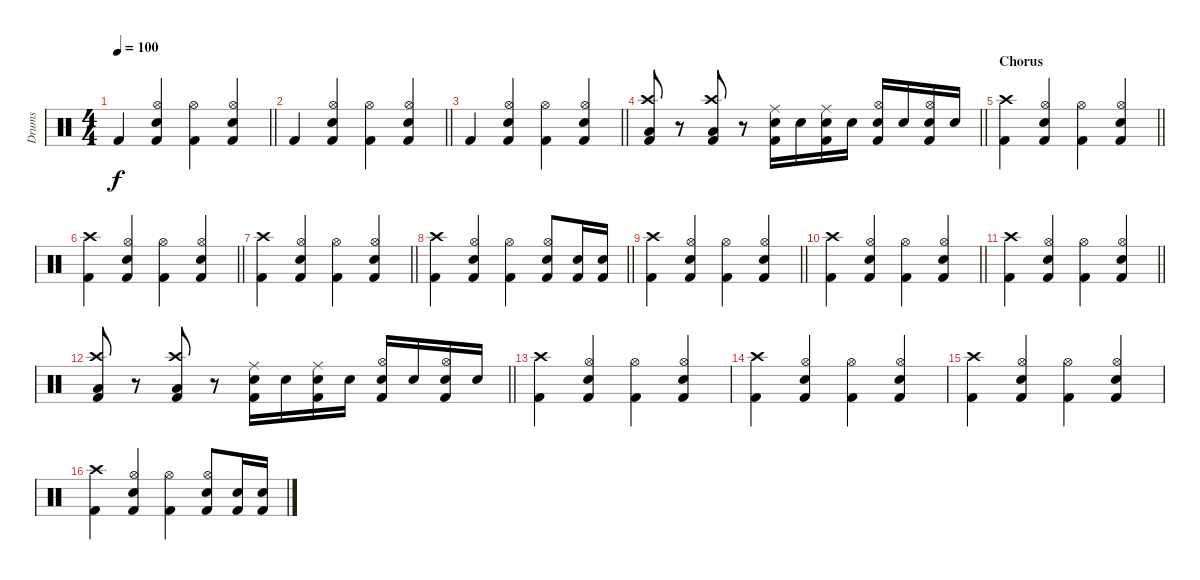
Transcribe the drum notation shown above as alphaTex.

\track ("Drums" "Drums") {instrument percussion}
\staff {score}
\articulation defaults
\ts (4 4)
\tempo 100
\clef neutral
\barLineRight lightlight
\ks c "Kick (hit) 2".4{dy f}
("Hi-Hat (open)" "Snare (hit) 2" "Kick (hit) 2").4 ("Hi-Hat (open)" "Kick (hit) 2").4 ("Hi-Hat (open)" "Snare (hit) 2" "Kick (hit) 2").4 |
\barLineRight lightlight "Kick (hit) 2".4
("Hi-Hat (open)" "Snare (hit) 2" "Kick (hit) 2").4 ("Hi-Hat (open)" "Kick (hit) 2").4 ("Hi-Hat (open)" "Snare (hit) 2" "Kick (hit) 2").4 |
\barLineRight lightlight "Kick (hit) 2".4
("Hi-Hat (open)" "Snare (hit) 2" "Kick (hit) 2").4 ("Hi-Hat (open)" "Kick (hit) 2").4 ("Hi-Hat (open)" "Snare (hit) 2" "Kick (hit) 2").4 |
\barLineRight lightlight
("Crash high (hit)" "Low Floor Tom (hit)" "Kick (hit) 2").8 r.8 ("Crash high (hit)" "Low Tom (hit)" "Kick (hit) 2").8 r.8 ("Ride (middle)" "Snare (hit) 2" "Kick (hit) 2").16 "Snare (hit) 2".16 ("Ride (middle)" "Snare (hit) 2" "Kick (hit) 2").16 "Snare (hit) 2".16 ("Hi-Hat (open)" "Snare (hit) 2" "Kick (hit) 2").16 "Snare (hit) 2".16 ("Hi-Hat (open)" "Snare (hit) 2" "Kick (hit) 2").16 "Snare (hit) 2".16 |
\section ("" "Chorus")
\barLineRight lightlight
("Crash high (hit)" "Kick (hit) 2").4 ("Hi-Hat (open)" "Snare (hit) 2" "Kick (hit) 2").4 ("Hi-Hat (open)" "Kick (hit) 2").4 ("Hi-Hat (open)" "Snare (hit) 2" "Kick (hit) 2").4 |
\barLineRight lightlight
("Crash high (hit)" "Kick (hit) 2").4 ("Hi-Hat (open)" "Snare (hit) 2" "Kick (hit) 2").4 ("Hi-Hat (open)" "Kick (hit) 2").4 ("Hi-Hat (open)" "Snare (hit) 2" "Kick (hit) 2").4 |
\barLineRight lightlight
("Crash high (hit)" "Kick (hit) 2").4 ("Hi-Hat (open)" "Snare (hit) 2" "Kick (hit) 2").4 ("Hi-Hat (open)" "Kick (hit) 2").4 ("Hi-Hat (open)" "Snare (hit) 2" "Kick (hit) 2").4 |
\barLineRight lightlight
("Crash high (hit)" "Kick (hit) 2").4 ("Hi-Hat (open)" "Snare (hit) 2" "Kick (hit) 2").4 ("Hi-Hat (open)" "Kick (hit) 2").4 ("Hi-Hat (open)" "Snare (hit) 2" "Kick (hit) 2").8 ("Snare (hit) 2" "Kick (hit) 2").16 ("Snare (hit) 2" "Kick (hit) 2").16 |
\barLineRight lightlight
("Crash high (hit)" "Kick (hit) 2").4 ("Hi-Hat (open)" "Snare (hit) 2" "Kick (hit) 2").4 ("Hi-Hat (open)" "Kick (hit) 2").4 ("Hi-Hat (open)" "Snare (hit) 2" "Kick (hit) 2").4 |
\barLineRight lightlight
("Crash high (hit)" "Kick (hit) 2").4 ("Hi-Hat (open)" "Snare (hit) 2" "Kick (hit) 2").4 ("Hi-Hat (open)" "Kick (hit) 2").4 ("Hi-Hat (open)" "Snare (hit) 2" "Kick (hit) 2").4 |
\barLineRight lightlight
("Crash high (hit)" "Kick (hit) 2").4 ("Hi-Hat (open)" "Snare (hit) 2" "Kick (hit) 2").4 ("Hi-Hat (open)" "Kick (hit) 2").4 ("Hi-Hat (open)" "Snare (hit) 2" "Kick (hit) 2").4 |
\barLineRight lightlight
("Crash high (hit)" "Low Floor Tom (hit)" "Kick (hit) 2").8 r.8 ("Crash high (hit)" "Low Tom (hit)" "Kick (hit) 2").8 r.8 ("Ride (middle)" "Snare (hit) 2" "Kick (hit) 2").16 "Snare (hit) 2".16 ("Ride (middle)" "Snare (hit) 2" "Kick (hit) 2").16 "Snare (hit) 2".16 ("Hi-Hat (open)" "Snare (hit) 2" "Kick (hit) 2").16 "Snare (hit) 2".16 ("Hi-Hat (open)" "Snare (hit) 2" "Kick (hit) 2").16 "Snare (hit) 2".16 |
("Crash high (hit)" "Kick (hit) 2").4 ("Hi-Hat (open)" "Snare (hit) 2" "Kick (hit) 2").4 ("Hi-Hat (open)" "Kick (hit) 2").4 ("Hi-Hat (open)" "Snare (hit) 2" "Kick (hit) 2").4 |
("Crash high (hit)" "Kick (hit) 2").4 ("Hi-Hat (open)" "Snare (hit) 2" "Kick (hit) 2").4 ("Hi-Hat (open)" "Kick (hit) 2").4 ("Hi-Hat (open)" "Snare (hit) 2" "Kick (hit) 2").4 |
("Crash high (hit)" "Kick (hit) 2").4 ("Hi-Hat (open)" "Snare (hit) 2" "Kick (hit) 2").4 ("Hi-Hat (open)" "Kick (hit) 2").4 ("Hi-Hat (open)" "Snare (hit) 2" "Kick (hit) 2").4 |
("Crash high (hit)" "Kick (hit) 2").4 ("Hi-Hat (open)" "Snare (hit) 2" "Kick (hit) 2").4 ("Hi-Hat (open)" "Kick (hit) 2").4 ("Hi-Hat (open)" "Snare (hit) 2" "Kick (hit) 2").8 ("Snare (hit) 2" "Kick (hit) 2").16 ("Snare (hit) 2" "Kick (hit) 2").16
